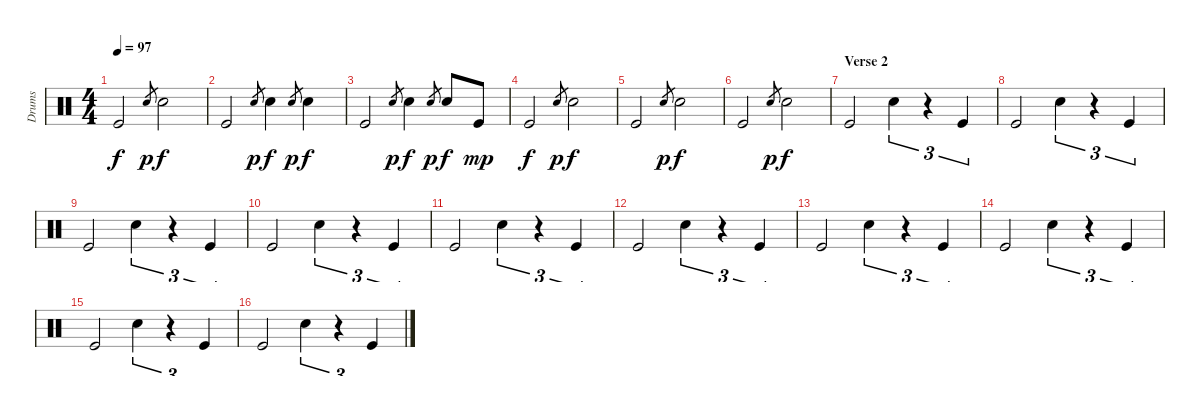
\track ("Drums" "Drums") {instrument percussion}
\staff {score}
\articulation defaults
\ts (4 4)
\tempo 97
\clef neutral
\ks c "Kick (hit)".2{dy f} "Snare (hit) 2".8{gr dy p} "Snare (hit) 2".2{dy f}
|
"Kick (hit)".2 "Snare (hit) 2".8{gr dy p} "Snare (hit) 2".4{dy f} "Snare (hit) 2".8{gr dy p} "Snare (hit) 2".4{dy f} |
"Kick (hit)".2 "Snare (hit) 2".8{gr dy p} "Snare (hit) 2".4{dy f} "Snare (hit) 2".8{gr dy p} "Snare (hit) 2".8{dy f} "Kick (hit)".8{dy mp} |
"Kick (hit)".2{dy f} "Snare (hit) 2".8{gr dy p} "Snare (hit) 2".2{dy f} |
"Kick (hit)".2 "Snare (hit) 2".8{gr dy p} "Snare (hit) 2".2{dy f} |
"Kick (hit)".2 "Snare (hit) 2".8{gr dy p} "Snare (hit) 2".2{dy f} |
\section ("" "Verse 2")
"Kick (hit)".2 "Snare (hit) 2".4{tu (3 2)} r.4{tu (3 2)} "Kick (hit)".4{tu (3 2)} |
"Kick (hit)".2 "Snare (hit) 2".4{tu (3 2)} r.4{tu (3 2)} "Kick (hit)".4{tu (3 2)} |
"Kick (hit)".2 "Snare (hit) 2".4{tu (3 2)} r.4{tu (3 2)} "Kick (hit)".4{tu (3 2)} |
"Kick (hit)".2 "Snare (hit) 2".4{tu (3 2)} r.4{tu (3 2)} "Kick (hit)".4{tu (3 2)} |
"Kick (hit)".2 "Snare (hit) 2".4{tu (3 2)} r.4{tu (3 2)} "Kick (hit)".4{tu (3 2)} |
"Kick (hit)".2 "Snare (hit) 2".4{tu (3 2)} r.4{tu (3 2)} "Kick (hit)".4{tu (3 2)} |
"Kick (hit)".2 "Snare (hit) 2".4{tu (3 2)} r.4{tu (3 2)} "Kick (hit)".4{tu (3 2)} |
"Kick (hit)".2 "Snare (hit) 2".4{tu (3 2)} r.4{tu (3 2)} "Kick (hit)".4{tu (3 2)} |
"Kick (hit)".2 "Snare (hit) 2".4{tu (3 2)} r.4{tu (3 2)} "Kick (hit)".4{tu (3 2)} |
"Kick (hit)".2 "Snare (hit) 2".4{tu (3 2)} r.4{tu (3 2)} "Kick (hit)".4{tu (3 2)}
